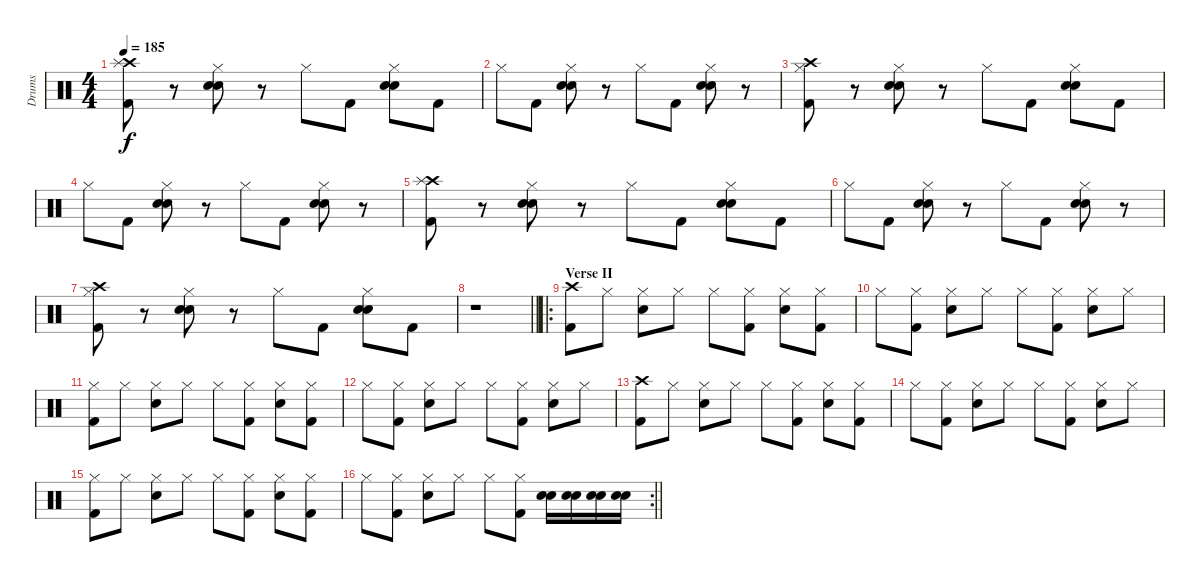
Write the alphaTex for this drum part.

\track ("Drums" "Drums") {instrument percussion}
\staff {score}
\articulation defaults
\ts (4 4)
\tempo 185
\clef neutral
\ks c
("Crash high (hit)" "Kick (hit) 2" "Splash (hit)").8{dy f} r.8 ("Hi-Hat (closed)" "Snare (hit) 2" "Electric Snare (hit)").8 r.8 "Hi-Hat (closed)".8 "Kick (hit) 2".8 ("Hi-Hat (closed)" "Snare (hit) 2" "Electric Snare (hit)").8 "Kick (hit) 2".8 |
"Hi-Hat (closed)".8 "Kick (hit) 2".8 ("Hi-Hat (closed)" "Snare (hit) 2" "Electric Snare (hit)").8 r.8 "Hi-Hat (closed)".8 "Kick (hit) 2".8 ("Hi-Hat (closed)" "Snare (hit) 2" "Electric Snare (hit)").8 r.8 |
("Hi-Hat (closed)" "Kick (hit) 2" "Crash high (hit)").8 r.8 ("Hi-Hat (closed)" "Snare (hit) 2" "Electric Snare (hit)").8 r.8 "Hi-Hat (closed)".8 "Kick (hit) 2".8 ("Hi-Hat (closed)" "Snare (hit) 2" "Electric Snare (hit)").8 "Kick (hit) 2".8 |
"Hi-Hat (closed)".8 "Kick (hit) 2".8 ("Hi-Hat (closed)" "Snare (hit) 2" "Electric Snare (hit)").8 r.8 "Hi-Hat (closed)".8 "Kick (hit) 2".8 ("Hi-Hat (closed)" "Snare (hit) 2" "Electric Snare (hit)").8 r.8 |
("Crash high (hit)" "Kick (hit) 2" "Splash (hit)").8 r.8 ("Hi-Hat (closed)" "Snare (hit) 2" "Electric Snare (hit)").8 r.8 "Hi-Hat (closed)".8 "Kick (hit) 2".8 ("Hi-Hat (closed)" "Snare (hit) 2" "Electric Snare (hit)").8 "Kick (hit) 2".8 |
"Hi-Hat (closed)".8 "Kick (hit) 2".8 ("Hi-Hat (closed)" "Snare (hit) 2" "Electric Snare (hit)").8 r.8 "Hi-Hat (closed)".8 "Kick (hit) 2".8 ("Hi-Hat (closed)" "Snare (hit) 2" "Electric Snare (hit)").8 r.8 |
("Hi-Hat (closed)" "Kick (hit) 2" "Crash high (hit)").8 r.8 ("Hi-Hat (closed)" "Snare (hit) 2" "Electric Snare (hit)").8 r.8 "Hi-Hat (closed)".8 "Kick (hit) 2".8 ("Hi-Hat (closed)" "Snare (hit) 2" "Electric Snare (hit)").8 "Kick (hit) 2".8 |
\barLineRight lightlight
r.1 |
\ro
\section ("" "Verse II")
("Crash high (hit)" "Kick (hit) 2").8 "Hi-Hat (closed)".8 ("Hi-Hat (closed)" "Electric Snare (hit)").8 "Hi-Hat (closed)".8 "Hi-Hat (closed)".8 ("Kick (hit) 2" "Hi-Hat (closed)").8 ("Hi-Hat (closed)" "Electric Snare (hit)").8 ("Kick (hit) 2" "Hi-Hat (closed)").8 |
"Hi-Hat (closed)".8 ("Kick (hit) 2" "Hi-Hat (closed)").8 ("Hi-Hat (closed)" "Electric Snare (hit)").8 "Hi-Hat (closed)".8 "Hi-Hat (closed)".8 ("Kick (hit) 2" "Hi-Hat (closed)").8 ("Hi-Hat (closed)" "Electric Snare (hit)").8 "Hi-Hat (closed)".8 |
("Hi-Hat (closed)" "Kick (hit) 2").8 "Hi-Hat (closed)".8 ("Hi-Hat (closed)" "Electric Snare (hit)").8 "Hi-Hat (closed)".8 "Hi-Hat (closed)".8 ("Kick (hit) 2" "Hi-Hat (closed)").8 ("Hi-Hat (closed)" "Electric Snare (hit)").8 ("Kick (hit) 2" "Hi-Hat (closed)").8 |
"Hi-Hat (closed)".8 ("Kick (hit) 2" "Hi-Hat (closed)").8 ("Hi-Hat (closed)" "Electric Snare (hit)").8 "Hi-Hat (closed)".8 "Hi-Hat (closed)".8 ("Kick (hit) 2" "Hi-Hat (closed)").8 ("Hi-Hat (closed)" "Electric Snare (hit)").8 "Hi-Hat (closed)".8 |
("Crash high (hit)" "Kick (hit) 2").8 "Hi-Hat (closed)".8 ("Hi-Hat (closed)" "Electric Snare (hit)").8 "Hi-Hat (closed)".8 "Hi-Hat (closed)".8 ("Kick (hit) 2" "Hi-Hat (closed)").8 ("Hi-Hat (closed)" "Electric Snare (hit)").8 ("Kick (hit) 2" "Hi-Hat (closed)").8 |
"Hi-Hat (closed)".8 ("Kick (hit) 2" "Hi-Hat (closed)").8 ("Hi-Hat (closed)" "Electric Snare (hit)").8 "Hi-Hat (closed)".8 "Hi-Hat (closed)".8 ("Kick (hit) 2" "Hi-Hat (closed)").8 ("Hi-Hat (closed)" "Electric Snare (hit)").8 "Hi-Hat (closed)".8 |
("Hi-Hat (closed)" "Kick (hit) 2").8 "Hi-Hat (closed)".8 ("Hi-Hat (closed)" "Electric Snare (hit)").8 "Hi-Hat (closed)".8 "Hi-Hat (closed)".8 ("Kick (hit) 2" "Hi-Hat (closed)").8 ("Hi-Hat (closed)" "Electric Snare (hit)").8 ("Kick (hit) 2" "Hi-Hat (closed)").8 |
\rc 2
\barLineRight lightlight "Hi-Hat (closed)".8
("Kick (hit) 2" "Hi-Hat (closed)").8 ("Hi-Hat (closed)" "Electric Snare (hit)").8 "Hi-Hat (closed)".8 "Hi-Hat (closed)".8 ("Kick (hit) 2" "Hi-Hat (closed)").8 ("Snare (hit) 2" "Electric Snare (hit)").16 ("Snare (hit) 2" "Electric Snare (hit)").16 ("Snare (hit) 2" "Electric Snare (hit)").16 ("Snare (hit) 2" "Electric Snare (hit)").16
